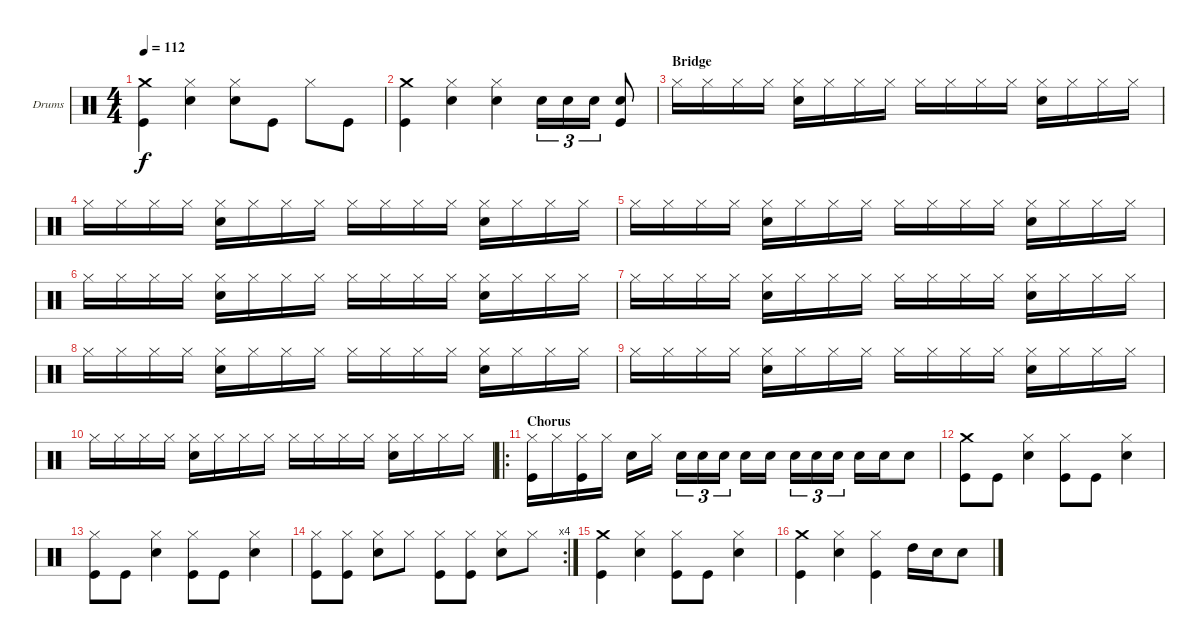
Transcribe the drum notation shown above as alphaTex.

\defaultSystemsLayout 4
\bracketExtendMode groupsimilarinstruments
\firstSystemTrackNameOrientation horizontal
\otherSystemsTrackNameOrientation horizontal
\track ("Drumkit" "Drums") {instrument percussion}
\staff {score}
\articulation defaults
\ts (4 4)
\tempo 112
\clef neutral
\ks c
("Crash medium (hit)" "Kick (hit)").4{dy f} ("Hi-Hat (closed)" "Snare (hit) 2").4 ("Hi-Hat (closed)" "Snare (hit) 2").8 "Kick (hit)".8 "Hi-Hat (closed)".8 "Kick (hit)".8 |
("Crash medium (hit)" "Kick (hit)").4 ("Hi-Hat (closed)" "Snare (hit) 2").4 ("Hi-Hat (closed)" "Snare (hit) 2").4 "Snare (hit) 2".16{tu (3 2)} "Snare (hit) 2".16{tu (3 2)} "Snare (hit) 2".16{tu (3 2)} ("Snare (hit) 2" "Kick (hit)").8 |
\section ("" "Bridge")
"Hi-Hat (closed)".16 "Hi-Hat (closed)".16 "Hi-Hat (closed)".16 "Hi-Hat (closed)".16 ("Hi-Hat (closed)" "Snare (hit) 2").16 "Hi-Hat (closed)".16 "Hi-Hat (closed)".16 "Hi-Hat (closed)".16 "Hi-Hat (closed)".16 "Hi-Hat (closed)".16 "Hi-Hat (closed)".16 "Hi-Hat (closed)".16 ("Hi-Hat (closed)" "Snare (hit) 2").16 "Hi-Hat (closed)".16 "Hi-Hat (closed)".16 "Hi-Hat (closed)".16 |
"Hi-Hat (closed)".16 "Hi-Hat (closed)".16 "Hi-Hat (closed)".16 "Hi-Hat (closed)".16 ("Hi-Hat (closed)" "Snare (hit) 2").16 "Hi-Hat (closed)".16 "Hi-Hat (closed)".16 "Hi-Hat (closed)".16 "Hi-Hat (closed)".16 "Hi-Hat (closed)".16 "Hi-Hat (closed)".16 "Hi-Hat (closed)".16 ("Hi-Hat (closed)" "Snare (hit) 2").16 "Hi-Hat (closed)".16 "Hi-Hat (closed)".16 "Hi-Hat (closed)".16 |
"Hi-Hat (closed)".16 "Hi-Hat (closed)".16 "Hi-Hat (closed)".16 "Hi-Hat (closed)".16 ("Hi-Hat (closed)" "Snare (hit) 2").16 "Hi-Hat (closed)".16 "Hi-Hat (closed)".16 "Hi-Hat (closed)".16 "Hi-Hat (closed)".16 "Hi-Hat (closed)".16 "Hi-Hat (closed)".16 "Hi-Hat (closed)".16 ("Hi-Hat (closed)" "Snare (hit) 2").16 "Hi-Hat (closed)".16 "Hi-Hat (closed)".16 "Hi-Hat (closed)".16 |
"Hi-Hat (closed)".16 "Hi-Hat (closed)".16 "Hi-Hat (closed)".16 "Hi-Hat (closed)".16 ("Hi-Hat (closed)" "Snare (hit) 2").16 "Hi-Hat (closed)".16 "Hi-Hat (closed)".16 "Hi-Hat (closed)".16 "Hi-Hat (closed)".16 "Hi-Hat (closed)".16 "Hi-Hat (closed)".16 "Hi-Hat (closed)".16 ("Hi-Hat (closed)" "Snare (hit) 2").16 "Hi-Hat (closed)".16 "Hi-Hat (closed)".16 "Hi-Hat (closed)".16 |
"Hi-Hat (closed)".16 "Hi-Hat (closed)".16 "Hi-Hat (closed)".16 "Hi-Hat (closed)".16 ("Hi-Hat (closed)" "Snare (hit) 2").16 "Hi-Hat (closed)".16 "Hi-Hat (closed)".16 "Hi-Hat (closed)".16 "Hi-Hat (closed)".16 "Hi-Hat (closed)".16 "Hi-Hat (closed)".16 "Hi-Hat (closed)".16 ("Hi-Hat (closed)" "Snare (hit) 2").16 "Hi-Hat (closed)".16 "Hi-Hat (closed)".16 "Hi-Hat (closed)".16 |
"Hi-Hat (closed)".16 "Hi-Hat (closed)".16 "Hi-Hat (closed)".16 "Hi-Hat (closed)".16 ("Hi-Hat (closed)" "Snare (hit) 2").16 "Hi-Hat (closed)".16 "Hi-Hat (closed)".16 "Hi-Hat (closed)".16 "Hi-Hat (closed)".16 "Hi-Hat (closed)".16 "Hi-Hat (closed)".16 "Hi-Hat (closed)".16 ("Hi-Hat (closed)" "Snare (hit) 2").16 "Hi-Hat (closed)".16 "Hi-Hat (closed)".16 "Hi-Hat (closed)".16 |
"Hi-Hat (closed)".16 "Hi-Hat (closed)".16 "Hi-Hat (closed)".16 "Hi-Hat (closed)".16 ("Hi-Hat (closed)" "Snare (hit) 2").16 "Hi-Hat (closed)".16 "Hi-Hat (closed)".16 "Hi-Hat (closed)".16 "Hi-Hat (closed)".16 "Hi-Hat (closed)".16 "Hi-Hat (closed)".16 "Hi-Hat (closed)".16 ("Hi-Hat (closed)" "Snare (hit) 2").16 "Hi-Hat (closed)".16 "Hi-Hat (closed)".16 "Hi-Hat (closed)".16 |
"Hi-Hat (closed)".16 "Hi-Hat (closed)".16 "Hi-Hat (closed)".16 "Hi-Hat (closed)".16 ("Hi-Hat (closed)" "Snare (hit) 2").16 "Hi-Hat (closed)".16 "Hi-Hat (closed)".16 "Hi-Hat (closed)".16 "Hi-Hat (closed)".16 "Hi-Hat (closed)".16 "Hi-Hat (closed)".16 "Hi-Hat (closed)".16 ("Hi-Hat (closed)" "Snare (hit) 2").16 "Hi-Hat (closed)".16 "Hi-Hat (closed)".16 "Hi-Hat (closed)".16 |
\ro
\section ("" "Chorus")
("Hi-Hat (closed)" "Kick (hit)").16 "Hi-Hat (closed)".16 ("Hi-Hat (closed)" "Kick (hit)").16 "Hi-Hat (closed)".16 "Snare (hit) 2".16 "Hi-Hat (closed)".16 "Snare (hit) 2".16{tu (3 2)} "Snare (hit) 2".16{tu (3 2)} "Snare (hit) 2".16{tu (3 2)} "Snare (hit) 2".16 "Snare (hit) 2".16 "Snare (hit) 2".16{tu (3 2)} "Snare (hit) 2".16{tu (3 2)} "Snare (hit) 2".16{tu (3 2)} "Snare (hit) 2".16 "Snare (hit) 2".16 "Snare (hit) 2".8 |
("Crash medium (hit)" "Kick (hit)").8 "Kick (hit)".8 ("Hi-Hat (closed)" "Snare (hit) 2").4 ("Hi-Hat (closed)" "Kick (hit)").8 "Kick (hit)".8 ("Hi-Hat (closed)" "Snare (hit) 2").4 |
("Hi-Hat (closed)" "Kick (hit)").8 "Kick (hit)".8 ("Hi-Hat (closed)" "Snare (hit) 2").4 ("Hi-Hat (closed)" "Kick (hit)").8 "Kick (hit)".8 ("Hi-Hat (closed)" "Snare (hit) 2").4 |
\rc 4
("Hi-Hat (closed)" "Kick (hit)").8 ("Hi-Hat (closed)" "Kick (hit)").8 ("Hi-Hat (closed)" "Snare (hit) 2").8 "Hi-Hat (closed)".8 ("Hi-Hat (closed)" "Kick (hit)").8 ("Hi-Hat (closed)" "Kick (hit)").8 ("Hi-Hat (closed)" "Snare (hit) 2").8 "Hi-Hat (closed)".8 |
("Crash medium (hit)" "Kick (hit)").4 ("Hi-Hat (closed)" "Snare (hit) 2").4 ("Hi-Hat (closed)" "Kick (hit)").8 "Kick (hit)".8 ("Hi-Hat (closed)" "Snare (hit) 2").4 |
("Crash medium (hit)" "Kick (hit)").4 ("Hi-Hat (closed)" "Snare (hit) 2").4 ("Hi-Hat (closed)" "Kick (hit)").4 "High Tom (hit)".16 "Snare (hit) 2".16 "Snare (hit) 2".8
